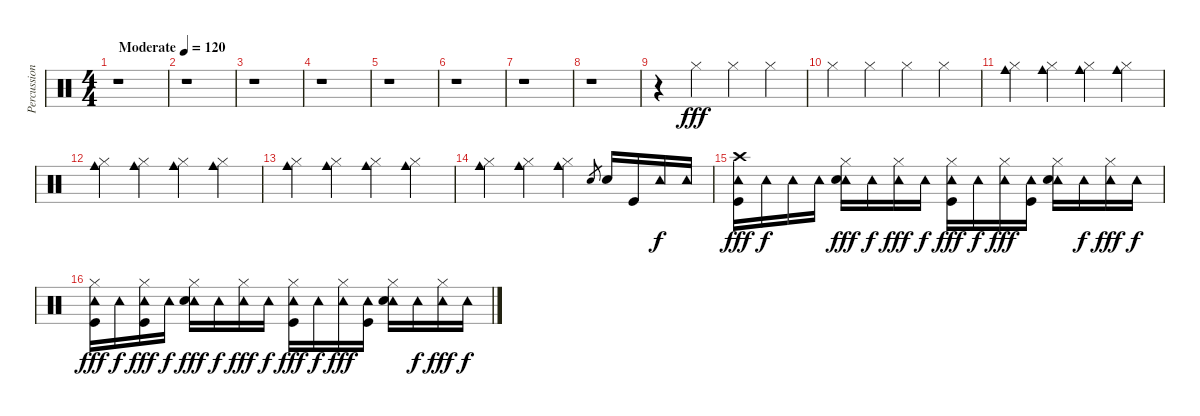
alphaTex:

\track ("Percussioni" "Percussion") {instrument percussion}
\staff {score}
\articulation defaults
\ts (4 4)
\tempo (120 "Moderate")
\clef neutral
\ks c
r.1{dy fff} |
r.1 |
r.1 |
r.1 |
r.1 |
r.1 |
r.1 |
r.1 |
r.4 "Hi-Hat (closed)".4 "Hi-Hat (closed)".4 "Hi-Hat (closed)".4 |
"Hi-Hat (closed)".4 "Hi-Hat (closed)".4 "Hi-Hat (closed)".4 "Hi-Hat (closed)".4 |
("Hi-Hat (closed)" "Cowbell medium (hit)").4 ("Hi-Hat (closed)" "Cowbell medium (hit)").4 ("Hi-Hat (closed)" "Cowbell medium (hit)").4 ("Hi-Hat (closed)" "Cowbell medium (hit)").4 |
("Hi-Hat (closed)" "Cowbell medium (hit)").4 ("Hi-Hat (closed)" "Cowbell medium (hit)").4 ("Hi-Hat (closed)" "Cowbell medium (hit)").4 ("Hi-Hat (closed)" "Cowbell medium (hit)").4 |
("Hi-Hat (closed)" "Cowbell medium (hit)").4 ("Hi-Hat (closed)" "Cowbell medium (hit)").4 ("Hi-Hat (closed)" "Cowbell medium (hit)").4 ("Hi-Hat (closed)" "Cowbell medium (hit)").4 |
("Hi-Hat (closed)" "Cowbell medium (hit)").4 ("Hi-Hat (closed)" "Cowbell medium (hit)").4 ("Hi-Hat (closed)" "Cowbell medium (hit)").4 "Snare (hit) 2".8{gr} "Snare (hit) 2".16 "Kick (hit)".16 "Tambourine (hit)".16{dy f} "Tambourine (hit)".16 |
("Crash high (hit)" "Tambourine (hit)" "Kick (hit)").16{dy fff} "Tambourine (hit)".16{dy f} "Tambourine (hit)".16 "Tambourine (hit)".16 ("Hi-Hat (closed)" "Tambourine (hit)" "Snare (hit) 2").16{dy fff} "Tambourine (hit)".16{dy f} ("Hi-Hat (closed)" "Tambourine (hit)").16{dy fff} "Tambourine (hit)".16{dy f} ("Hi-Hat (closed)" "Tambourine (hit)" "Kick (hit)").16{dy fff} "Tambourine (hit)".16{dy f} ("Hi-Hat (closed)" "Tambourine (hit)").16{dy fff} ("Tambourine (hit)" "Kick (hit)").16 ("Hi-Hat (closed)" "Tambourine (hit)" "Snare (hit) 2").16 "Tambourine (hit)".16{dy f} ("Hi-Hat (closed)" "Tambourine (hit)").16{dy fff} "Tambourine (hit)".16{dy f} |
("Hi-Hat (closed)" "Tambourine (hit)" "Kick (hit)").16{dy fff} "Tambourine (hit)".16{dy f} ("Hi-Hat (closed)" "Tambourine (hit)" "Kick (hit)").16{dy fff} "Tambourine (hit)".16{dy f} ("Hi-Hat (closed)" "Tambourine (hit)" "Snare (hit) 2").16{dy fff} "Tambourine (hit)".16{dy f} ("Hi-Hat (closed)" "Tambourine (hit)").16{dy fff} "Tambourine (hit)".16{dy f} ("Hi-Hat (closed)" "Tambourine (hit)" "Kick (hit)").16{dy fff} "Tambourine (hit)".16{dy f} ("Hi-Hat (closed)" "Tambourine (hit)").16{dy fff} ("Tambourine (hit)" "Kick (hit)").16 ("Hi-Hat (closed)" "Tambourine (hit)" "Snare (hit) 2").16 "Tambourine (hit)".16{dy f} ("Hi-Hat (closed)" "Tambourine (hit)").16{dy fff} "Tambourine (hit)".16{dy f}
